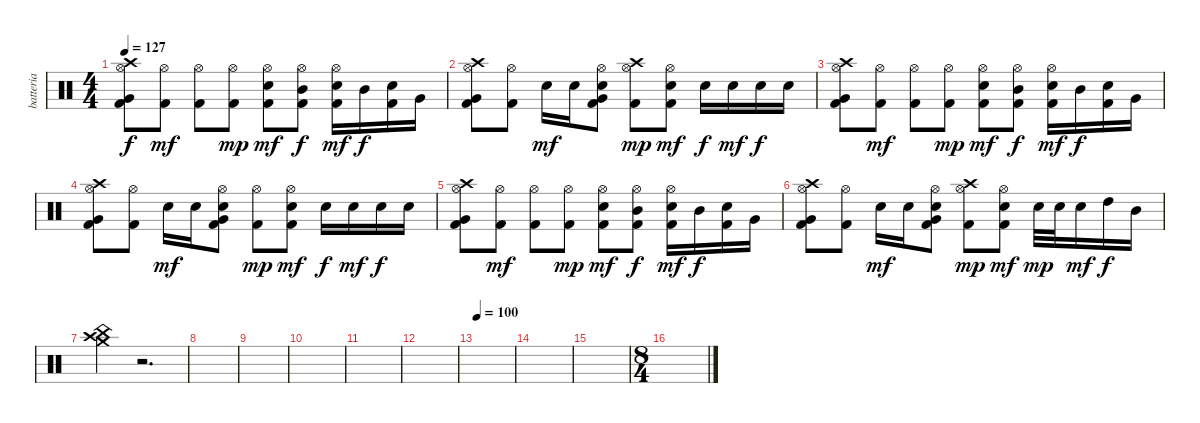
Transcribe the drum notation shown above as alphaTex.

\track ("batteria" "batteria") {instrument percussion}
\staff {score}
\articulation defaults
\ts (4 4)
\tempo 127
\clef neutral
\ks c
("Crash high (hit)" "Hi-Hat (open)" "Very Low Tom (hit)" "Kick (hit) 2").8{dy f} ("Hi-Hat (open)" "Kick (hit) 2").8{dy mf} ("Hi-Hat (open)" "Kick (hit) 2").8 ("Hi-Hat (open)" "Kick (hit) 2").8{dy mp} ("Electric Snare (hit)" "Hi-Hat (open)" "Kick (hit) 2").8{dy mf} ("Hi-Hat (open)" "Mid Tom (hit)" "Kick (hit) 2").8{dy f} ("Electric Snare (hit)" "Hi-Hat (open)" "Kick (hit) 2").16{dy mf} "Mid Tom (hit)".16{dy f} ("Electric Snare (hit)" "Kick (hit) 2").16 "Very Low Tom (hit)".16 |
("Crash high (hit)" "Hi-Hat (open)" "Very Low Tom (hit)" "Kick (hit) 2").8 ("Hi-Hat (open)" "Kick (hit) 2").8 "Electric Snare (hit)".16{dy mf} "Electric Snare (hit)".16 ("Electric Snare (hit)" "Hi-Hat (open)" "Very Low Tom (hit)" "Kick (hit) 2").8 ("Crash high (hit)" "Hi-Hat (open)" "Kick (hit) 2").8{dy mp} ("Electric Snare (hit)" "Hi-Hat (open)" "Kick (hit) 2").8{dy mf} "Electric Snare (hit)".16{dy f} "Electric Snare (hit)".16{dy mf} "Electric Snare (hit)".16{dy f} "Electric Snare (hit)".16 |
("Crash high (hit)" "Hi-Hat (open)" "Very Low Tom (hit)" "Kick (hit) 2").8 ("Hi-Hat (open)" "Kick (hit) 2").8{dy mf} ("Hi-Hat (open)" "Kick (hit) 2").8 ("Hi-Hat (open)" "Kick (hit) 2").8{dy mp} ("Electric Snare (hit)" "Hi-Hat (open)" "Kick (hit) 2").8{dy mf} ("Hi-Hat (open)" "Mid Tom (hit)" "Kick (hit) 2").8{dy f} ("Electric Snare (hit)" "Hi-Hat (open)" "Kick (hit) 2").16{dy mf} "Mid Tom (hit)".16{dy f} ("Electric Snare (hit)" "Kick (hit) 2").16 "Very Low Tom (hit)".16 |
("Crash high (hit)" "Hi-Hat (open)" "Very Low Tom (hit)" "Kick (hit) 2").8 ("Hi-Hat (open)" "Kick (hit) 2").8 "Electric Snare (hit)".16{dy mf} "Electric Snare (hit)".16 ("Electric Snare (hit)" "Hi-Hat (open)" "Very Low Tom (hit)" "Kick (hit) 2").8 ("Hi-Hat (open)" "Kick (hit) 2").8{dy mp} ("Electric Snare (hit)" "Hi-Hat (open)" "Kick (hit) 2").8{dy mf} "Electric Snare (hit)".16{dy f} "Electric Snare (hit)".16{dy mf} "Electric Snare (hit)".16{dy f} "Electric Snare (hit)".16 |
("Crash high (hit)" "Hi-Hat (open)" "Very Low Tom (hit)" "Kick (hit) 2").8 ("Hi-Hat (open)" "Kick (hit) 2").8{dy mf} ("Hi-Hat (open)" "Kick (hit) 2").8 ("Hi-Hat (open)" "Kick (hit) 2").8{dy mp} ("Electric Snare (hit)" "Hi-Hat (open)" "Kick (hit) 2").8{dy mf} ("Hi-Hat (open)" "Mid Tom (hit)" "Kick (hit) 2").8{dy f} ("Electric Snare (hit)" "Hi-Hat (open)" "Kick (hit) 2").16{dy mf} "Mid Tom (hit)".16{dy f} ("Electric Snare (hit)" "Kick (hit) 2").16 "Very Low Tom (hit)".16 |
("Crash high (hit)" "Hi-Hat (open)" "Very Low Tom (hit)" "Kick (hit) 2").8 ("Hi-Hat (open)" "Kick (hit) 2").8 "Electric Snare (hit)".16{dy mf} "Electric Snare (hit)".16 ("Electric Snare (hit)" "Hi-Hat (open)" "Very Low Tom (hit)" "Kick (hit) 2").8 ("Crash high (hit)" "Hi-Hat (open)" "Kick (hit) 2").8{dy mp} ("Electric Snare (hit)" "Hi-Hat (open)" "Kick (hit) 2").8{dy mf} "Electric Snare (hit)".32{dy mp} "Electric Snare (hit)".32 "Electric Snare (hit)".16{dy mf} "High Tom (hit)".16{dy f} "Mid Tom (hit)".16 |
("China (hit)" "Crash medium (hit)" "Crash high (hit)").4 r.2{d} |
|
|
|
|
|
\tempo 100
|
|
|
\ts (8 4)
